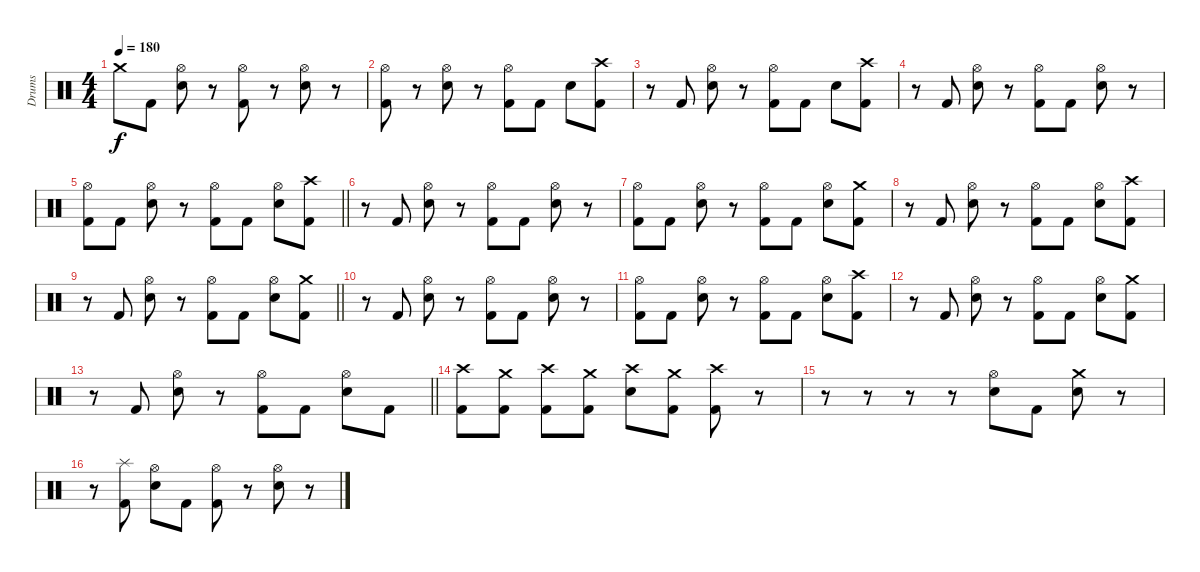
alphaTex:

\track ("Drums" "Drums") {instrument percussion}
\staff {score}
\articulation defaults
\ts (4 4)
\tempo 180
\clef neutral
\ks c "Crash medium (hit)".8{dy f} "Kick (hit) 2".8
("Hi-Hat (open)" "Electric Snare (hit)").8 r.8 ("Hi-Hat (open)" "Kick (hit) 2").8 r.8 ("Hi-Hat (open)" "Electric Snare (hit)").8 r.8 |
("Hi-Hat (open)" "Kick (hit) 2").8 r.8 ("Hi-Hat (open)" "Electric Snare (hit)").8 r.8 ("Hi-Hat (open)" "Kick (hit) 2").8 "Kick (hit) 2".8 "Electric Snare (hit)".8 ("Crash high (hit)" "Kick (hit) 2").8 |
r.8 "Kick (hit) 2".8 ("Hi-Hat (open)" "Electric Snare (hit)").8 r.8 ("Hi-Hat (open)" "Kick (hit) 2").8 "Kick (hit) 2".8 "Electric Snare (hit)".8 ("Crash high (hit)" "Kick (hit) 2").8 |
r.8 "Kick (hit) 2".8 ("Hi-Hat (open)" "Electric Snare (hit)").8 r.8 ("Hi-Hat (open)" "Kick (hit) 2").8 "Kick (hit) 2".8 ("Hi-Hat (open)" "Electric Snare (hit)").8 r.8 |
\barLineRight lightlight
("Hi-Hat (open)" "Kick (hit) 2").8 "Kick (hit) 2".8 ("Hi-Hat (open)" "Electric Snare (hit)").8 r.8 ("Hi-Hat (open)" "Kick (hit) 2").8 "Kick (hit) 2".8 ("Hi-Hat (open)" "Electric Snare (hit)").8 ("Crash high (hit)" "Kick (hit) 2").8 |
r.8 "Kick (hit) 2".8 ("Hi-Hat (open)" "Electric Snare (hit)").8 r.8 ("Hi-Hat (open)" "Kick (hit) 2").8 "Kick (hit) 2".8 ("Hi-Hat (open)" "Electric Snare (hit)").8 r.8 |
("Hi-Hat (open)" "Kick (hit) 2").8 "Kick (hit) 2".8 ("Hi-Hat (open)" "Electric Snare (hit)").8 r.8 ("Hi-Hat (open)" "Kick (hit) 2").8 "Kick (hit) 2".8 ("Hi-Hat (open)" "Electric Snare (hit)").8 ("Crash medium (hit)" "Kick (hit) 2").8 |
r.8 "Kick (hit) 2".8 ("Hi-Hat (open)" "Electric Snare (hit)").8 r.8 ("Hi-Hat (open)" "Kick (hit) 2").8 "Kick (hit) 2".8 ("Hi-Hat (open)" "Electric Snare (hit)").8 ("Crash high (hit)" "Kick (hit) 2").8 |
\barLineRight lightlight
r.8 "Kick (hit) 2".8 ("Hi-Hat (open)" "Electric Snare (hit)").8 r.8 ("Hi-Hat (open)" "Kick (hit) 2").8 "Kick (hit) 2".8 ("Hi-Hat (open)" "Electric Snare (hit)").8 ("Crash medium (hit)" "Kick (hit) 2").8 |
r.8 "Kick (hit) 2".8 ("Hi-Hat (open)" "Electric Snare (hit)").8 r.8 ("Hi-Hat (open)" "Kick (hit) 2").8 "Kick (hit) 2".8 ("Hi-Hat (open)" "Electric Snare (hit)").8 r.8 |
("Hi-Hat (open)" "Kick (hit) 2").8 "Kick (hit) 2".8 ("Hi-Hat (open)" "Electric Snare (hit)").8 r.8 ("Hi-Hat (open)" "Kick (hit) 2").8 "Kick (hit) 2".8 ("Hi-Hat (open)" "Electric Snare (hit)").8 ("Crash high (hit)" "Kick (hit) 2").8 |
r.8 "Kick (hit) 2".8 ("Hi-Hat (open)" "Electric Snare (hit)").8 r.8 ("Hi-Hat (open)" "Kick (hit) 2").8 "Kick (hit) 2".8 ("Hi-Hat (open)" "Electric Snare (hit)").8 ("Crash medium (hit)" "Kick (hit) 2").8 |
\barLineRight lightlight
r.8 "Kick (hit) 2".8 ("Hi-Hat (open)" "Electric Snare (hit)").8 r.8 ("Hi-Hat (open)" "Kick (hit) 2").8 "Kick (hit) 2".8 ("Hi-Hat (open)" "Electric Snare (hit)").8 "Kick (hit) 2".8 |
("Crash high (hit)" "Kick (hit) 2").8 ("Crash medium (hit)" "Kick (hit) 2").8 ("Crash high (hit)" "Kick (hit) 2").8 ("Crash medium (hit)" "Kick (hit) 2").8 ("Crash high (hit)" "Electric Snare (hit)").8 ("Crash medium (hit)" "Kick (hit) 2").8 ("Crash high (hit)" "Kick (hit) 2").8 r.8 |
r.8 r.8 r.8 r.8 ("Hi-Hat (open)" "Electric Snare (hit)").8 "Kick (hit) 2".8 ("Crash medium (hit)" "Electric Snare (hit)").8 r.8 |
r.8 ("Splash (hit)" "Kick (hit) 2").8 ("Hi-Hat (open)" "Electric Snare (hit)").8 "Kick (hit) 2".8 ("Hi-Hat (open)" "Kick (hit) 2").8 r.8 ("Hi-Hat (open)" "Electric Snare (hit)").8 r.8
